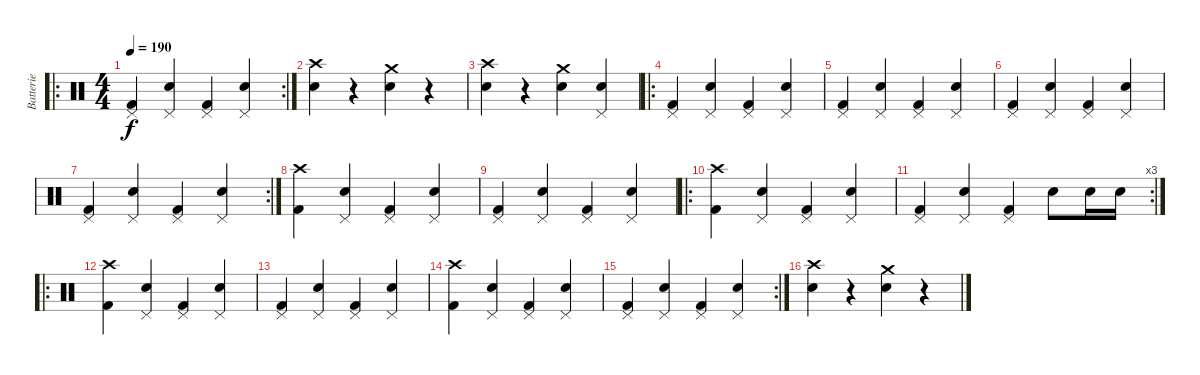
\track ("Batterie" "Batterie") {instrument percussion}
\staff {score}
\articulation defaults
\ro
\rc 2
\ts (4 4)
\tempo 190
\clef neutral
\ks c
("Pedal Hi-Hat (hit)" "Kick (hit) 2").4{dy f} ("Pedal Hi-Hat (hit)" "Snare (hit) 2").4 ("Pedal Hi-Hat (hit)" "Kick (hit) 2").4 ("Pedal Hi-Hat (hit)" "Snare (hit) 2").4 |
("Crash high (hit)" "Snare (hit) 2").4 r.4 ("Crash medium (hit)" "Snare (hit) 2").4 r.4 |
("Crash high (hit)" "Snare (hit) 2").4 r.4 ("Crash medium (hit)" "Snare (hit) 2").4 ("Pedal Hi-Hat (hit)" "Snare (hit) 2").4 |
\ro
("Pedal Hi-Hat (hit)" "Kick (hit) 2").4 ("Pedal Hi-Hat (hit)" "Snare (hit) 2").4 ("Pedal Hi-Hat (hit)" "Kick (hit) 2").4 ("Pedal Hi-Hat (hit)" "Snare (hit) 2").4 |
("Pedal Hi-Hat (hit)" "Kick (hit) 2").4 ("Pedal Hi-Hat (hit)" "Snare (hit) 2").4 ("Pedal Hi-Hat (hit)" "Kick (hit) 2").4 ("Pedal Hi-Hat (hit)" "Snare (hit) 2").4 |
("Pedal Hi-Hat (hit)" "Kick (hit) 2").4 ("Pedal Hi-Hat (hit)" "Snare (hit) 2").4 ("Pedal Hi-Hat (hit)" "Kick (hit) 2").4 ("Pedal Hi-Hat (hit)" "Snare (hit) 2").4 |
\rc 2
("Pedal Hi-Hat (hit)" "Kick (hit) 2").4 ("Pedal Hi-Hat (hit)" "Snare (hit) 2").4 ("Pedal Hi-Hat (hit)" "Kick (hit) 2").4 ("Pedal Hi-Hat (hit)" "Snare (hit) 2").4 |
("Crash high (hit)" "Kick (hit) 2").4 ("Pedal Hi-Hat (hit)" "Snare (hit) 2").4 ("Pedal Hi-Hat (hit)" "Kick (hit) 2").4 ("Pedal Hi-Hat (hit)" "Snare (hit) 2").4 |
("Pedal Hi-Hat (hit)" "Kick (hit) 2").4 ("Pedal Hi-Hat (hit)" "Snare (hit) 2").4 ("Pedal Hi-Hat (hit)" "Kick (hit) 2").4 ("Pedal Hi-Hat (hit)" "Snare (hit) 2").4 |
\ro
("Crash high (hit)" "Kick (hit) 2").4 ("Pedal Hi-Hat (hit)" "Snare (hit) 2").4 ("Pedal Hi-Hat (hit)" "Kick (hit) 2").4 ("Pedal Hi-Hat (hit)" "Snare (hit) 2").4 |
\rc 3
("Pedal Hi-Hat (hit)" "Kick (hit) 2").4 ("Pedal Hi-Hat (hit)" "Snare (hit) 2").4 ("Pedal Hi-Hat (hit)" "Kick (hit) 2").4 "Snare (hit) 2".8 "Snare (hit) 2".16 "Snare (hit) 2".16 |
\ro
("Crash high (hit)" "Kick (hit) 2").4 ("Pedal Hi-Hat (hit)" "Snare (hit) 2").4 ("Pedal Hi-Hat (hit)" "Kick (hit) 2").4 ("Pedal Hi-Hat (hit)" "Snare (hit) 2").4 |
("Pedal Hi-Hat (hit)" "Kick (hit) 2").4 ("Pedal Hi-Hat (hit)" "Snare (hit) 2").4 ("Pedal Hi-Hat (hit)" "Kick (hit) 2").4 ("Pedal Hi-Hat (hit)" "Snare (hit) 2").4 |
("Crash high (hit)" "Kick (hit) 2").4 ("Pedal Hi-Hat (hit)" "Snare (hit) 2").4 ("Pedal Hi-Hat (hit)" "Kick (hit) 2").4 ("Pedal Hi-Hat (hit)" "Snare (hit) 2").4 |
\rc 2
("Pedal Hi-Hat (hit)" "Kick (hit) 2").4 ("Pedal Hi-Hat (hit)" "Snare (hit) 2").4 ("Pedal Hi-Hat (hit)" "Kick (hit) 2").4 ("Pedal Hi-Hat (hit)" "Snare (hit) 2").4 |
("Crash high (hit)" "Snare (hit) 2").4 r.4 ("Crash medium (hit)" "Snare (hit) 2").4 r.4
